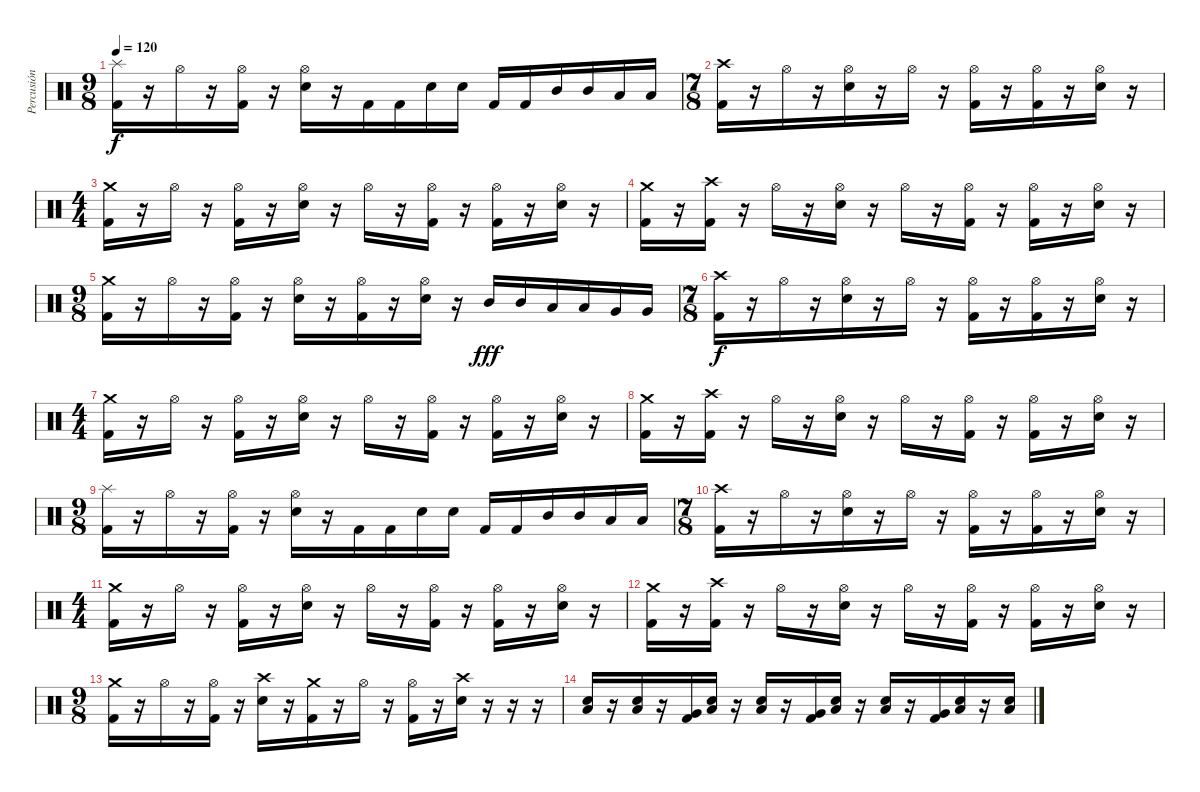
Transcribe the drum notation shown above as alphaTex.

\track ("Percusión" "Percusión") {instrument percussion}
\staff {score}
\articulation defaults
\ts (9 8)
\tempo 120
\clef neutral
\ks c
("Splash (hit)" "Kick (hit) 2").16{dy f} r.16 "Hi-Hat (open)".16 r.16 ("Hi-Hat (open)" "Kick (hit) 2").16 r.16 ("Hi-Hat (open)" "Electric Snare (hit)").16 r.16 "Kick (hit) 2".16 "Kick (hit) 2".16 "Electric Snare (hit)".16 "Electric Snare (hit)".16 "Kick (hit) 2".16 "Kick (hit) 2".16 "Mid Tom (hit)".16 "Mid Tom (hit)".16 "Low Tom (hit)".16 "Low Tom (hit)".16 |
\ts (7 8)
("Crash high (hit)" "Kick (hit) 2").16 r.16 "Hi-Hat (open)".16 r.16 ("Hi-Hat (open)" "Electric Snare (hit)").16 r.16 "Hi-Hat (open)".16 r.16 ("Hi-Hat (open)" "Kick (hit) 2").16 r.16 ("Hi-Hat (open)" "Kick (hit) 2").16 r.16 ("Hi-Hat (open)" "Electric Snare (hit)").16 r.16 |
\ts (4 4)
("Crash medium (hit)" "Kick (hit) 2").16 r.16 "Hi-Hat (open)".16 r.16 ("Hi-Hat (open)" "Kick (hit) 2").16 r.16 ("Hi-Hat (open)" "Electric Snare (hit)").16 r.16 "Hi-Hat (open)".16 r.16 ("Hi-Hat (open)" "Kick (hit) 2").16 r.16 ("Hi-Hat (open)" "Kick (hit) 2").16 r.16 ("Hi-Hat (open)" "Electric Snare (hit)").16 r.16 |
("Crash medium (hit)" "Kick (hit) 2").16 r.16 ("Crash high (hit)" "Kick (hit) 2").16 r.16 "Hi-Hat (open)".16 r.16 ("Hi-Hat (open)" "Electric Snare (hit)").16 r.16 "Hi-Hat (open)".16 r.16 ("Hi-Hat (open)" "Kick (hit) 2").16 r.16 ("Hi-Hat (open)" "Kick (hit) 2").16 r.16 ("Hi-Hat (open)" "Electric Snare (hit)").16 r.16 |
\ts (9 8)
("Crash medium (hit)" "Kick (hit) 2").16 r.16 "Hi-Hat (open)".16 r.16 ("Hi-Hat (open)" "Kick (hit) 2").16 r.16 ("Hi-Hat (open)" "Electric Snare (hit)").16 r.16 ("Hi-Hat (open)" "Kick (hit) 2").16 r.16 ("Hi-Hat (open)" "Electric Snare (hit)").16 r.16 "Mid Tom (hit)".16{dy fff} "Mid Tom (hit)".16 "Low Tom (hit)".16 "Low Tom (hit)".16 "Very Low Tom (hit)".16 "Very Low Tom (hit)".16 |
\ts (7 8)
("Crash high (hit)" "Kick (hit) 2").16{dy f} r.16 "Hi-Hat (open)".16 r.16 ("Hi-Hat (open)" "Electric Snare (hit)").16 r.16 "Hi-Hat (open)".16 r.16 ("Hi-Hat (open)" "Kick (hit) 2").16 r.16 ("Hi-Hat (open)" "Kick (hit) 2").16 r.16 ("Hi-Hat (open)" "Electric Snare (hit)").16 r.16 |
\ts (4 4)
("Crash medium (hit)" "Kick (hit) 2").16 r.16 "Hi-Hat (open)".16 r.16 ("Hi-Hat (open)" "Kick (hit) 2").16 r.16 ("Hi-Hat (open)" "Electric Snare (hit)").16 r.16 "Hi-Hat (open)".16 r.16 ("Hi-Hat (open)" "Kick (hit) 2").16 r.16 ("Hi-Hat (open)" "Kick (hit) 2").16 r.16 ("Hi-Hat (open)" "Electric Snare (hit)").16 r.16 |
("Crash medium (hit)" "Kick (hit) 2").16 r.16 ("Crash high (hit)" "Kick (hit) 2").16 r.16 "Hi-Hat (open)".16 r.16 ("Hi-Hat (open)" "Electric Snare (hit)").16 r.16 "Hi-Hat (open)".16 r.16 ("Hi-Hat (open)" "Kick (hit) 2").16 r.16 ("Hi-Hat (open)" "Kick (hit) 2").16 r.16 ("Hi-Hat (open)" "Electric Snare (hit)").16 r.16 |
\ts (9 8)
("Splash (hit)" "Kick (hit) 2").16 r.16 "Hi-Hat (open)".16 r.16 ("Hi-Hat (open)" "Kick (hit) 2").16 r.16 ("Hi-Hat (open)" "Electric Snare (hit)").16 r.16 "Kick (hit) 2".16 "Kick (hit) 2".16 "Electric Snare (hit)".16 "Electric Snare (hit)".16 "Kick (hit) 2".16 "Kick (hit) 2".16 "Mid Tom (hit)".16 "Mid Tom (hit)".16 "Low Tom (hit)".16 "Low Tom (hit)".16 |
\ts (7 8)
("Crash high (hit)" "Kick (hit) 2").16 r.16 "Hi-Hat (open)".16 r.16 ("Hi-Hat (open)" "Electric Snare (hit)").16 r.16 "Hi-Hat (open)".16 r.16 ("Hi-Hat (open)" "Kick (hit) 2").16 r.16 ("Hi-Hat (open)" "Kick (hit) 2").16 r.16 ("Hi-Hat (open)" "Electric Snare (hit)").16 r.16 |
\ts (4 4)
("Crash medium (hit)" "Kick (hit) 2").16 r.16 "Hi-Hat (open)".16 r.16 ("Hi-Hat (open)" "Kick (hit) 2").16 r.16 ("Hi-Hat (open)" "Electric Snare (hit)").16 r.16 "Hi-Hat (open)".16 r.16 ("Hi-Hat (open)" "Kick (hit) 2").16 r.16 ("Hi-Hat (open)" "Kick (hit) 2").16 r.16 ("Hi-Hat (open)" "Electric Snare (hit)").16 r.16 |
("Crash medium (hit)" "Kick (hit) 2").16 r.16 ("Crash high (hit)" "Kick (hit) 2").16 r.16 "Hi-Hat (open)".16 r.16 ("Hi-Hat (open)" "Electric Snare (hit)").16 r.16 "Hi-Hat (open)".16 r.16 ("Hi-Hat (open)" "Kick (hit) 2").16 r.16 ("Hi-Hat (open)" "Kick (hit) 2").16 r.16 ("Hi-Hat (open)" "Electric Snare (hit)").16 r.16 |
\ts (9 8)
("Crash medium (hit)" "Kick (hit) 2").16 r.16 "Hi-Hat (open)".16 r.16 ("Hi-Hat (open)" "Kick (hit) 2").16 r.16 ("Crash high (hit)" "Electric Snare (hit)").16 r.16 ("Crash medium (hit)" "Kick (hit) 2").16 r.16 "Hi-Hat (open)".16 r.16 ("Hi-Hat (open)" "Kick (hit) 2").16 r.16 ("Crash high (hit)" "Electric Snare (hit)").16 r.16 r.16 r.16 |
("Low Tom (hit)" "Electric Snare (hit)").16 r.16 ("Low Tom (hit)" "Electric Snare (hit)").16 r.16 ("Very Low Tom (hit)" "Kick (hit) 2").16 ("Low Tom (hit)" "Electric Snare (hit)").16 r.16 ("Low Tom (hit)" "Electric Snare (hit)").16 r.16 ("Very Low Tom (hit)" "Kick (hit) 2").16 ("Low Tom (hit)" "Electric Snare (hit)").16 r.16 ("Low Tom (hit)" "Electric Snare (hit)").16 r.16 ("Very Low Tom (hit)" "Kick (hit) 2").16 ("Low Tom (hit)" "Electric Snare (hit)").16 r.16 ("Low Tom (hit)" "Electric Snare (hit)").16
